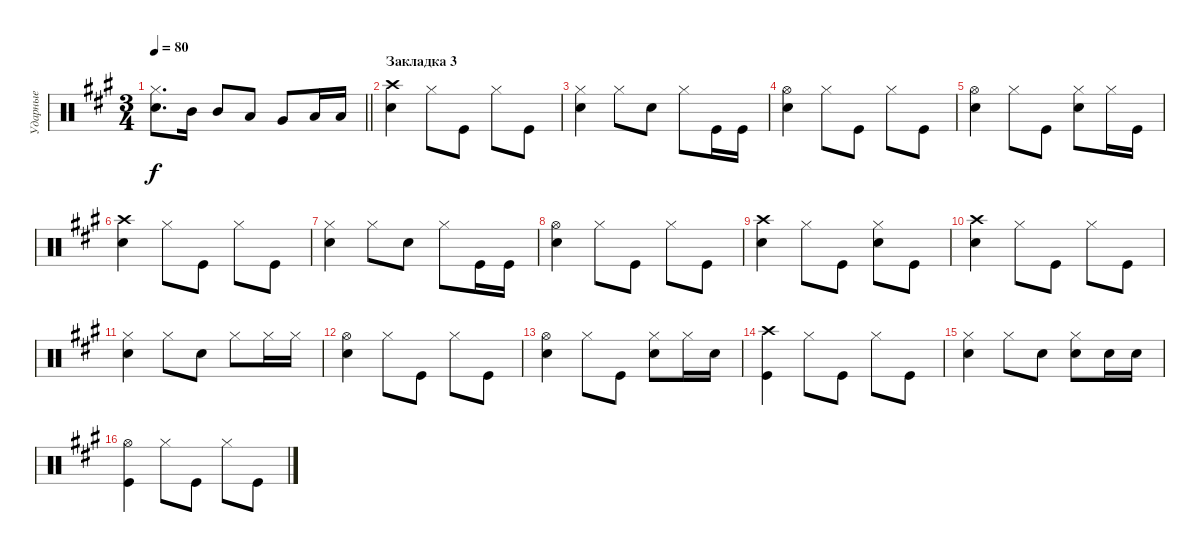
\track ("Ударные" "Ударные") {instrument percussion}
\staff {score}
\articulation defaults
\ts (3 4)
\tempo 80
\clef neutral
\barLineRight lightlight
\ks f#minor
("Snare (hit) 2" "Hi-Hat (closed)").8{d dy f} "Mid Tom (hit)".16 "Mid Tom (hit)".8 "Low Tom (hit)".8 "Very Low Tom (hit)".8 "Low Floor Tom (hit)".16 "Low Floor Tom (hit)".16 |
\section ("" "Закладка 3")
("Snare (hit) 2" "Crash high (hit)").4 "Hi-Hat (closed)".8 "Kick (hit)".8 "Hi-Hat (closed)".8 "Kick (hit)".8 |
("Snare (hit) 2" "Hi-Hat (closed)").4 "Hi-Hat (closed)".8 "Snare (hit) 2".8 "Hi-Hat (closed)".8 "Kick (hit)".16 "Kick (hit)".16 |
("Snare (hit) 2" "Hi-Hat (open)").4 "Hi-Hat (closed)".8 "Kick (hit)".8 "Hi-Hat (closed)".8 "Kick (hit)".8 |
("Snare (hit) 2" "Hi-Hat (open)").4 "Hi-Hat (closed)".8 "Kick (hit)".8 ("Snare (hit) 2" "Hi-Hat (closed)").8 "Hi-Hat (closed)".16 "Kick (hit)".16 |
("Snare (hit) 2" "Crash high (hit)").4 "Hi-Hat (closed)".8 "Kick (hit)".8 "Hi-Hat (closed)".8 "Kick (hit)".8 |
("Snare (hit) 2" "Hi-Hat (closed)").4 "Hi-Hat (closed)".8 "Snare (hit) 2".8 "Hi-Hat (closed)".8 "Kick (hit)".16 "Kick (hit)".16 |
("Snare (hit) 2" "Hi-Hat (open)").4 "Hi-Hat (closed)".8 "Kick (hit)".8 "Hi-Hat (closed)".8 "Kick (hit)".8 |
("Snare (hit) 2" "Crash high (hit)").4 "Hi-Hat (closed)".8 "Kick (hit)".8 ("Snare (hit) 2" "Hi-Hat (closed)").8 "Kick (hit)".8 |
("Snare (hit) 2" "Crash high (hit)").4 "Hi-Hat (closed)".8 "Kick (hit)".8 "Hi-Hat (closed)".8 "Kick (hit)".8 |
("Snare (hit) 2" "Hi-Hat (closed)").4 "Hi-Hat (closed)".8 "Snare (hit) 2".8 "Hi-Hat (closed)".8 "Hi-Hat (closed)".16 "Hi-Hat (closed)".16 |
("Snare (hit) 2" "Hi-Hat (open)").4 "Hi-Hat (closed)".8 "Kick (hit)".8 "Hi-Hat (closed)".8 "Kick (hit)".8 |
("Snare (hit) 2" "Hi-Hat (open)").4 "Hi-Hat (closed)".8 "Kick (hit)".8 ("Snare (hit) 2" "Hi-Hat (closed)").8 "Hi-Hat (closed)".16 "Snare (hit) 2".16 |
("Kick (hit)" "Crash high (hit)").4 "Hi-Hat (closed)".8 "Kick (hit)".8 "Hi-Hat (closed)".8 "Kick (hit)".8 |
("Snare (hit) 2" "Hi-Hat (closed)").4 "Hi-Hat (closed)".8 "Snare (hit) 2".8 ("Snare (hit) 2" "Hi-Hat (closed)").8 "Snare (hit) 2".16 "Snare (hit) 2".16 |
("Kick (hit)" "Hi-Hat (open)").4 "Hi-Hat (closed)".8 "Kick (hit)".8 "Hi-Hat (closed)".8 "Kick (hit)".8
